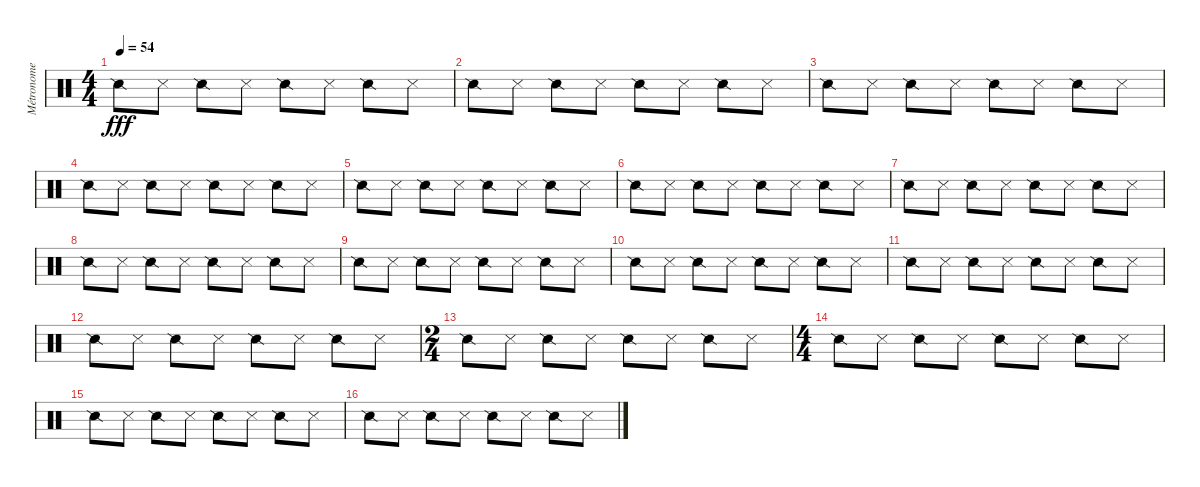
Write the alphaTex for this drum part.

\track ("Métronome" "Métronome") {mute instrument percussion}
\staff {score}
\articulation defaults
\ts (4 4)
\tempo 54
\clef neutral
\ks c "Snare (side stick) 2".8{dy fff} "Metronome (hit)".8 "Snare (side stick) 2".8 "Metronome (hit)".8 "Snare (side stick) 2".8 "Metronome (hit)".8 "Snare (side stick) 2".8 "Metronome (hit)".8
|
"Snare (side stick) 2".8 "Metronome (hit)".8 "Snare (side stick) 2".8 "Metronome (hit)".8 "Snare (side stick) 2".8 "Metronome (hit)".8 "Snare (side stick) 2".8 "Metronome (hit)".8 |
"Snare (side stick) 2".8 "Metronome (hit)".8 "Snare (side stick) 2".8 "Metronome (hit)".8 "Snare (side stick) 2".8 "Metronome (hit)".8 "Snare (side stick) 2".8 "Metronome (hit)".8 |
"Snare (side stick) 2".8 "Metronome (hit)".8 "Snare (side stick) 2".8 "Metronome (hit)".8 "Snare (side stick) 2".8 "Metronome (hit)".8 "Snare (side stick) 2".8 "Metronome (hit)".8 |
"Snare (side stick) 2".8 "Metronome (hit)".8 "Snare (side stick) 2".8 "Metronome (hit)".8 "Snare (side stick) 2".8 "Metronome (hit)".8 "Snare (side stick) 2".8 "Metronome (hit)".8 |
"Snare (side stick) 2".8 "Metronome (hit)".8 "Snare (side stick) 2".8 "Metronome (hit)".8 "Snare (side stick) 2".8 "Metronome (hit)".8 "Snare (side stick) 2".8 "Metronome (hit)".8 |
"Snare (side stick) 2".8 "Metronome (hit)".8 "Snare (side stick) 2".8 "Metronome (hit)".8 "Snare (side stick) 2".8 "Metronome (hit)".8 "Snare (side stick) 2".8 "Metronome (hit)".8 |
"Snare (side stick) 2".8 "Metronome (hit)".8 "Snare (side stick) 2".8 "Metronome (hit)".8 "Snare (side stick) 2".8 "Metronome (hit)".8 "Snare (side stick) 2".8 "Metronome (hit)".8 |
"Snare (side stick) 2".8 "Metronome (hit)".8 "Snare (side stick) 2".8 "Metronome (hit)".8 "Snare (side stick) 2".8 "Metronome (hit)".8 "Snare (side stick) 2".8 "Metronome (hit)".8 |
"Snare (side stick) 2".8 "Metronome (hit)".8 "Snare (side stick) 2".8 "Metronome (hit)".8 "Snare (side stick) 2".8 "Metronome (hit)".8 "Snare (side stick) 2".8 "Metronome (hit)".8 |
"Snare (side stick) 2".8 "Metronome (hit)".8 "Snare (side stick) 2".8 "Metronome (hit)".8 "Snare (side stick) 2".8 "Metronome (hit)".8 "Snare (side stick) 2".8 "Metronome (hit)".8 |
"Snare (side stick) 2".8 "Metronome (hit)".8 "Snare (side stick) 2".8 "Metronome (hit)".8 "Snare (side stick) 2".8 "Metronome (hit)".8 "Snare (side stick) 2".8 "Metronome (hit)".8 |
\ts (2 4)
"Snare (side stick) 2".8 "Metronome (hit)".8 "Snare (side stick) 2".8 "Metronome (hit)".8 "Snare (side stick) 2".8 "Metronome (hit)".8 "Snare (side stick) 2".8 "Metronome (hit)".8 |
\ts (4 4)
"Snare (side stick) 2".8 "Metronome (hit)".8 "Snare (side stick) 2".8 "Metronome (hit)".8 "Snare (side stick) 2".8 "Metronome (hit)".8 "Snare (side stick) 2".8 "Metronome (hit)".8 |
"Snare (side stick) 2".8 "Metronome (hit)".8 "Snare (side stick) 2".8 "Metronome (hit)".8 "Snare (side stick) 2".8 "Metronome (hit)".8 "Snare (side stick) 2".8 "Metronome (hit)".8 |
"Snare (side stick) 2".8 "Metronome (hit)".8 "Snare (side stick) 2".8 "Metronome (hit)".8 "Snare (side stick) 2".8 "Metronome (hit)".8 "Snare (side stick) 2".8 "Metronome (hit)".8
